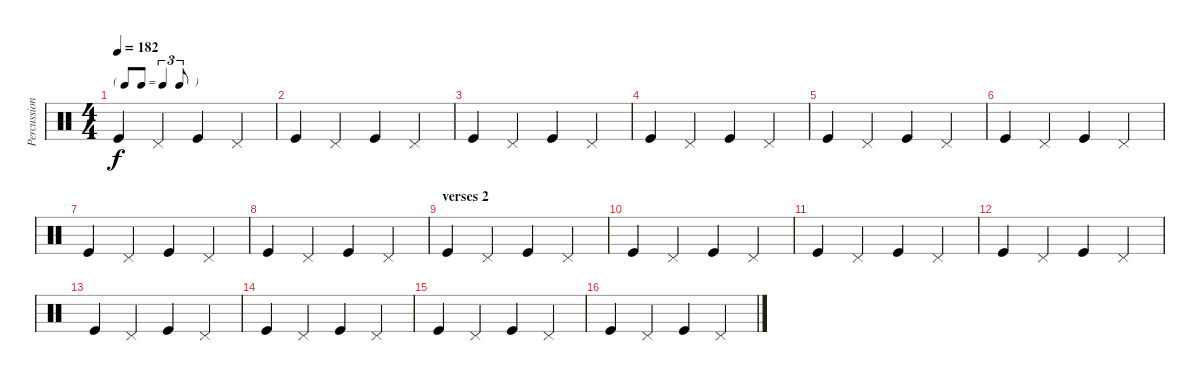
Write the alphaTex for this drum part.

\track ("Percussions" "Percussion") {instrument percussion}
\staff {score}
\articulation defaults
\ts (4 4)
\tf triplet8th
\tempo 182
\clef neutral
\ks c "Kick (hit)".4{dy f} "Pedal Hi-Hat (hit)".4 "Kick (hit)".4 "Pedal Hi-Hat (hit)".4
|
"Kick (hit)".4 "Pedal Hi-Hat (hit)".4 "Kick (hit)".4 "Pedal Hi-Hat (hit)".4 |
"Kick (hit)".4 "Pedal Hi-Hat (hit)".4 "Kick (hit)".4 "Pedal Hi-Hat (hit)".4 |
"Kick (hit)".4 "Pedal Hi-Hat (hit)".4 "Kick (hit)".4 "Pedal Hi-Hat (hit)".4 |
"Kick (hit)".4 "Pedal Hi-Hat (hit)".4 "Kick (hit)".4 "Pedal Hi-Hat (hit)".4 |
"Kick (hit)".4 "Pedal Hi-Hat (hit)".4 "Kick (hit)".4 "Pedal Hi-Hat (hit)".4 |
"Kick (hit)".4 "Pedal Hi-Hat (hit)".4 "Kick (hit)".4 "Pedal Hi-Hat (hit)".4 |
"Kick (hit)".4 "Pedal Hi-Hat (hit)".4 "Kick (hit)".4 "Pedal Hi-Hat (hit)".4 |
\section ("" "verses 2")
"Kick (hit)".4 "Pedal Hi-Hat (hit)".4 "Kick (hit)".4 "Pedal Hi-Hat (hit)".4 |
"Kick (hit)".4 "Pedal Hi-Hat (hit)".4 "Kick (hit)".4 "Pedal Hi-Hat (hit)".4 |
"Kick (hit)".4 "Pedal Hi-Hat (hit)".4 "Kick (hit)".4 "Pedal Hi-Hat (hit)".4 |
"Kick (hit)".4 "Pedal Hi-Hat (hit)".4 "Kick (hit)".4 "Pedal Hi-Hat (hit)".4 |
"Kick (hit)".4 "Pedal Hi-Hat (hit)".4 "Kick (hit)".4 "Pedal Hi-Hat (hit)".4 |
"Kick (hit)".4 "Pedal Hi-Hat (hit)".4 "Kick (hit)".4 "Pedal Hi-Hat (hit)".4 |
"Kick (hit)".4 "Pedal Hi-Hat (hit)".4 "Kick (hit)".4 "Pedal Hi-Hat (hit)".4 |
"Kick (hit)".4 "Pedal Hi-Hat (hit)".4 "Kick (hit)".4 "Pedal Hi-Hat (hit)".4
